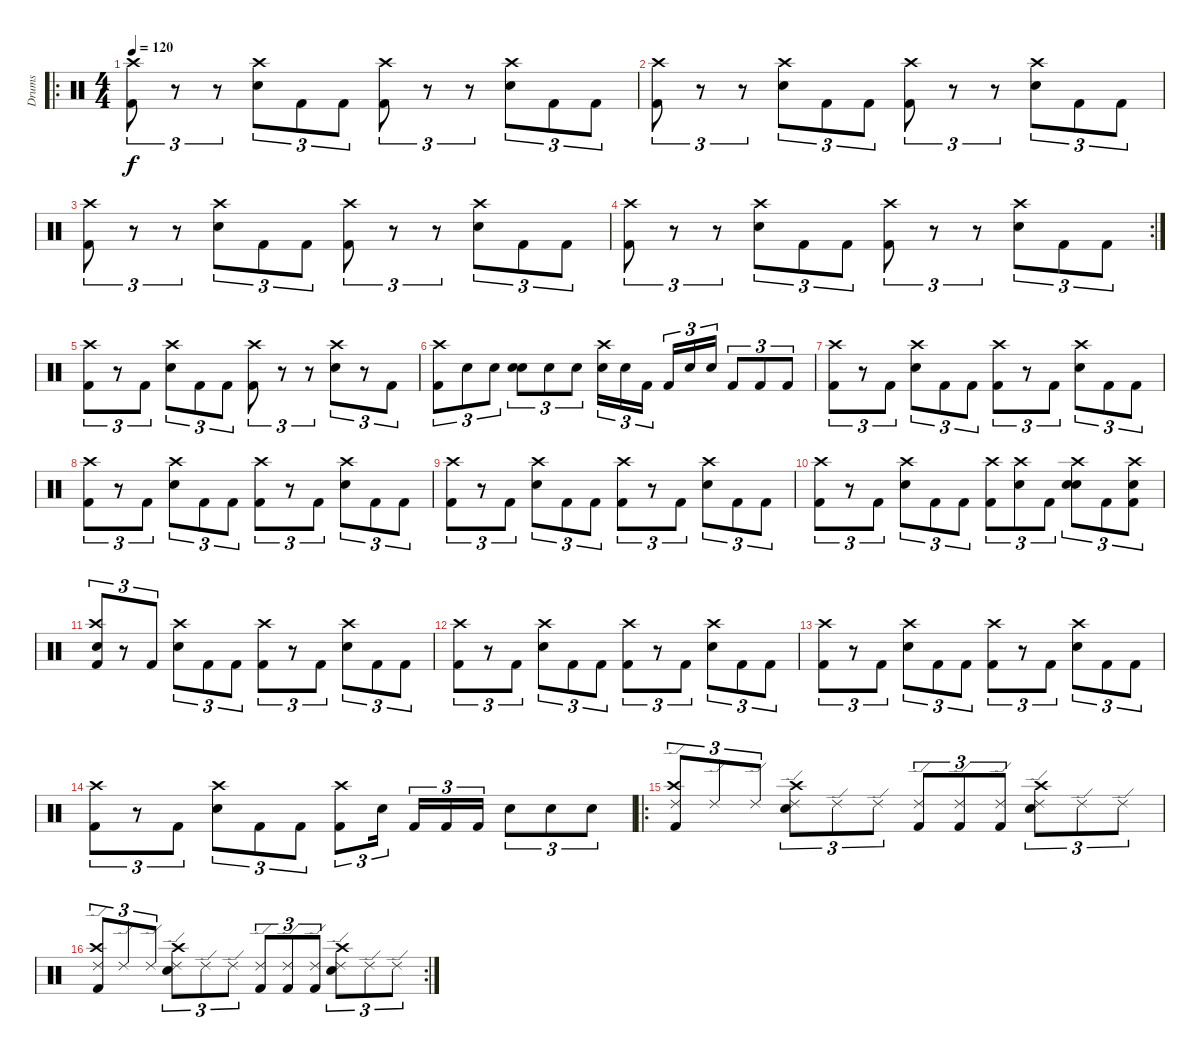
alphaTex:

\track ("Drums" "Drums") {instrument percussion}
\staff {score}
\articulation defaults
\ro
\ts (4 4)
\tempo 120
\clef neutral
\ks c
("Kick (hit) 2" "Crash high (hit)").8{tu (3 2) dy f} r.8{tu (3 2)} r.8{tu (3 2)} ("Electric Snare (hit)" "Crash high (hit)").8{tu (3 2)} "Kick (hit) 2".8{tu (3 2)} "Kick (hit) 2".8{tu (3 2)} ("Kick (hit) 2" "Crash high (hit)").8{tu (3 2)} r.8{tu (3 2)} r.8{tu (3 2)} ("Electric Snare (hit)" "Crash high (hit)").8{tu (3 2)} "Kick (hit) 2".8{tu (3 2)} "Kick (hit) 2".8{tu (3 2)} |
("Kick (hit) 2" "Crash high (hit)").8{tu (3 2)} r.8{tu (3 2)} r.8{tu (3 2)} ("Electric Snare (hit)" "Crash high (hit)").8{tu (3 2)} "Kick (hit) 2".8{tu (3 2)} "Kick (hit) 2".8{tu (3 2)} ("Kick (hit) 2" "Crash high (hit)").8{tu (3 2)} r.8{tu (3 2)} r.8{tu (3 2)} ("Electric Snare (hit)" "Crash high (hit)").8{tu (3 2)} "Kick (hit) 2".8{tu (3 2)} "Kick (hit) 2".8{tu (3 2)} |
("Kick (hit) 2" "Crash high (hit)").8{tu (3 2)} r.8{tu (3 2)} r.8{tu (3 2)} ("Electric Snare (hit)" "Crash high (hit)").8{tu (3 2)} "Kick (hit) 2".8{tu (3 2)} "Kick (hit) 2".8{tu (3 2)} ("Kick (hit) 2" "Crash high (hit)").8{tu (3 2)} r.8{tu (3 2)} r.8{tu (3 2)} ("Electric Snare (hit)" "Crash high (hit)").8{tu (3 2)} "Kick (hit) 2".8{tu (3 2)} "Kick (hit) 2".8{tu (3 2)} |
\rc 2
("Kick (hit) 2" "Crash high (hit)").8{tu (3 2)} r.8{tu (3 2)} r.8{tu (3 2)} ("Electric Snare (hit)" "Crash high (hit)").8{tu (3 2)} "Kick (hit) 2".8{tu (3 2)} "Kick (hit) 2".8{tu (3 2)} ("Kick (hit) 2" "Crash high (hit)").8{tu (3 2)} r.8{tu (3 2)} r.8{tu (3 2)} ("Electric Snare (hit)" "Crash high (hit)").8{tu (3 2)} "Kick (hit) 2".8{tu (3 2)} "Kick (hit) 2".8{tu (3 2)} |
("Kick (hit) 2" "Crash high (hit)").8{tu (3 2)} r.8{tu (3 2)} "Kick (hit) 2".8{tu (3 2)} ("Electric Snare (hit)" "Crash high (hit)").8{tu (3 2)} "Kick (hit) 2".8{tu (3 2)} "Kick (hit) 2".8{tu (3 2)} ("Kick (hit) 2" "Crash high (hit)").8{tu (3 2)} r.8{tu (3 2)} r.8{tu (3 2)} ("Electric Snare (hit)" "Crash high (hit)").8{tu (3 2)} r.8{tu (3 2)} "Kick (hit) 2".8{tu (3 2)} |
("Kick (hit) 2" "Crash high (hit)").8{tu (3 2)} "Electric Snare (hit)".8{tu (3 2)} "Electric Snare (hit)".8{tu (3 2)} ("Electric Snare (hit)" "Electric Snare (hit)").8{tu (3 2)} "Electric Snare (hit)".8{tu (3 2)} "Electric Snare (hit)".8{tu (3 2)} ("Crash high (hit)" "Electric Snare (hit)").16{tu (3 2)} "Electric Snare (hit)".16{tu (3 2)} "Kick (hit) 2".16{tu (3 2) beam splitsecondary} "Kick (hit) 2".16{tu (3 2)} "Electric Snare (hit)".16{tu (3 2)} "Electric Snare (hit)".16{tu (3 2)} "Kick (hit) 2".8{tu (3 2)} "Kick (hit) 2".8{tu (3 2)} "Kick (hit) 2".8{tu (3 2)} |
("Kick (hit) 2" "Crash high (hit)").8{tu (3 2)} r.8{tu (3 2)} "Kick (hit) 2".8{tu (3 2)} ("Electric Snare (hit)" "Crash high (hit)").8{tu (3 2)} "Kick (hit) 2".8{tu (3 2)} "Kick (hit) 2".8{tu (3 2)} ("Kick (hit) 2" "Crash high (hit)").8{tu (3 2)} r.8{tu (3 2)} "Kick (hit) 2".8{tu (3 2)} ("Electric Snare (hit)" "Crash high (hit)").8{tu (3 2)} "Kick (hit) 2".8{tu (3 2)} "Kick (hit) 2".8{tu (3 2)} |
("Kick (hit) 2" "Crash high (hit)").8{tu (3 2)} r.8{tu (3 2)} "Kick (hit) 2".8{tu (3 2)} ("Electric Snare (hit)" "Crash high (hit)").8{tu (3 2)} "Kick (hit) 2".8{tu (3 2)} "Kick (hit) 2".8{tu (3 2)} ("Kick (hit) 2" "Crash high (hit)").8{tu (3 2)} r.8{tu (3 2)} "Kick (hit) 2".8{tu (3 2)} ("Electric Snare (hit)" "Crash high (hit)").8{tu (3 2)} "Kick (hit) 2".8{tu (3 2)} "Kick (hit) 2".8{tu (3 2)} |
("Kick (hit) 2" "Crash high (hit)").8{tu (3 2)} r.8{tu (3 2)} "Kick (hit) 2".8{tu (3 2)} ("Electric Snare (hit)" "Crash high (hit)").8{tu (3 2)} "Kick (hit) 2".8{tu (3 2)} "Kick (hit) 2".8{tu (3 2)} ("Kick (hit) 2" "Crash high (hit)").8{tu (3 2)} r.8{tu (3 2)} "Kick (hit) 2".8{tu (3 2)} ("Electric Snare (hit)" "Crash high (hit)").8{tu (3 2)} "Kick (hit) 2".8{tu (3 2)} "Kick (hit) 2".8{tu (3 2)} |
("Kick (hit) 2" "Crash high (hit)").8{tu (3 2)} r.8{tu (3 2)} "Kick (hit) 2".8{tu (3 2)} ("Electric Snare (hit)" "Crash high (hit)").8{tu (3 2)} "Kick (hit) 2".8{tu (3 2)} "Kick (hit) 2".8{tu (3 2)} ("Kick (hit) 2" "Crash high (hit)").8{tu (3 2)} ("Electric Snare (hit)" "Crash high (hit)").8{tu (3 2)} "Kick (hit) 2".8{tu (3 2)} ("Electric Snare (hit)" "Electric Snare (hit)" "Crash high (hit)").8{tu (3 2)} "Kick (hit) 2".8{tu (3 2)} ("Kick (hit) 2" "Electric Snare (hit)" "Crash high (hit)").8{tu (3 2)} |
("Kick (hit) 2" "Crash high (hit)" "Snare (hit)").8{tu (3 2)} r.8{tu (3 2)} "Kick (hit) 2".8{tu (3 2)} ("Electric Snare (hit)" "Crash high (hit)").8{tu (3 2)} "Kick (hit) 2".8{tu (3 2)} "Kick (hit) 2".8{tu (3 2)} ("Kick (hit) 2" "Crash high (hit)").8{tu (3 2)} r.8{tu (3 2)} "Kick (hit) 2".8{tu (3 2)} ("Electric Snare (hit)" "Crash high (hit)").8{tu (3 2)} "Kick (hit) 2".8{tu (3 2)} "Kick (hit) 2".8{tu (3 2)} |
("Kick (hit) 2" "Crash high (hit)").8{tu (3 2)} r.8{tu (3 2)} "Kick (hit) 2".8{tu (3 2)} ("Electric Snare (hit)" "Crash high (hit)").8{tu (3 2)} "Kick (hit) 2".8{tu (3 2)} "Kick (hit) 2".8{tu (3 2)} ("Kick (hit) 2" "Crash high (hit)").8{tu (3 2)} r.8{tu (3 2)} "Kick (hit) 2".8{tu (3 2)} ("Electric Snare (hit)" "Crash high (hit)").8{tu (3 2)} "Kick (hit) 2".8{tu (3 2)} "Kick (hit) 2".8{tu (3 2)} |
("Kick (hit) 2" "Crash high (hit)").8{tu (3 2)} r.8{tu (3 2)} "Kick (hit) 2".8{tu (3 2)} ("Electric Snare (hit)" "Crash high (hit)").8{tu (3 2)} "Kick (hit) 2".8{tu (3 2)} "Kick (hit) 2".8{tu (3 2)} ("Kick (hit) 2" "Crash high (hit)").8{tu (3 2)} r.8{tu (3 2)} "Kick (hit) 2".8{tu (3 2)} ("Electric Snare (hit)" "Crash high (hit)").8{tu (3 2)} "Kick (hit) 2".8{tu (3 2)} "Kick (hit) 2".8{tu (3 2)} |
("Kick (hit) 2" "Crash high (hit)").8{tu (3 2)} r.8{tu (3 2)} "Kick (hit) 2".8{tu (3 2)} ("Electric Snare (hit)" "Crash high (hit)").8{tu (3 2)} "Kick (hit) 2".8{tu (3 2)} "Kick (hit) 2".8{tu (3 2)} ("Kick (hit) 2" "Crash high (hit)").8{tu (3 2)} "Electric Snare (hit)".16{tu (3 2) beam splitsecondary} "Kick (hit) 2".16{tu (3 2)} "Kick (hit) 2".16{tu (3 2)} "Kick (hit) 2".16{tu (3 2)} "Electric Snare (hit)".8{tu (3 2)} "Electric Snare (hit)".8{tu (3 2)} "Electric Snare (hit)".8{tu (3 2)} |
\ro
("Ride (edge) 2" "Crash high (hit)" "Kick (hit) 2").8{tu (3 2)} "Ride (edge) 2".8{tu (3 2)} "Ride (edge) 2".8{tu (3 2)} ("Ride (edge) 2" "Crash high (hit)" "Electric Snare (hit)").8{tu (3 2)} "Ride (edge) 2".8{tu (3 2)} "Ride (edge) 2".8{tu (3 2)} ("Ride (edge) 2" "Kick (hit) 2").8{tu (3 2)} ("Ride (edge) 2" "Kick (hit) 2").8{tu (3 2)} ("Ride (edge) 2" "Kick (hit) 2").8{tu (3 2)} ("Ride (edge) 2" "Crash high (hit)" "Electric Snare (hit)").8{tu (3 2)} "Ride (edge) 2".8{tu (3 2)} "Ride (edge) 2".8{tu (3 2)} |
\rc 2
("Ride (edge) 2" "Crash high (hit)" "Kick (hit) 2").8{tu (3 2)} "Ride (edge) 2".8{tu (3 2)} "Ride (edge) 2".8{tu (3 2)} ("Ride (edge) 2" "Crash high (hit)" "Electric Snare (hit)").8{tu (3 2)} "Ride (edge) 2".8{tu (3 2)} "Ride (edge) 2".8{tu (3 2)} ("Ride (edge) 2" "Kick (hit) 2").8{tu (3 2)} ("Ride (edge) 2" "Kick (hit) 2").8{tu (3 2)} ("Ride (edge) 2" "Kick (hit) 2").8{tu (3 2)} ("Ride (edge) 2" "Crash high (hit)" "Electric Snare (hit)").8{tu (3 2)} "Ride (edge) 2".8{tu (3 2)} "Ride (edge) 2".8{tu (3 2)}
